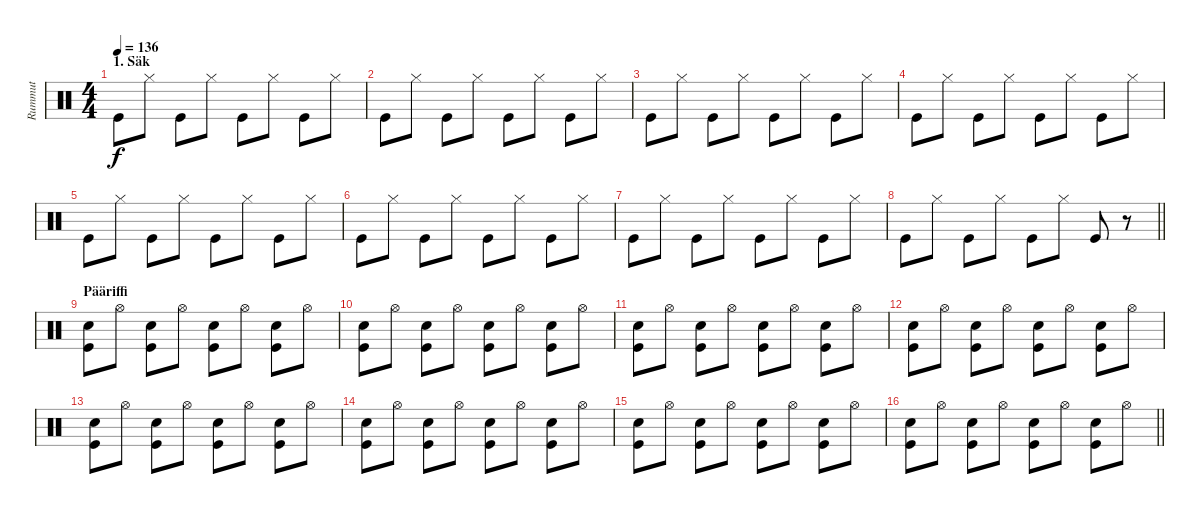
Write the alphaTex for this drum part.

\track ("Rummut" "Rummut") {instrument percussion}
\staff {score}
\articulation defaults
\ts (4 4)
\section ("" "1. Säk")
\tempo 136
\clef neutral
\ks c "Kick (hit)".8{dy f} "Hi-Hat (closed)".8 "Kick (hit)".8 "Hi-Hat (closed)".8 "Kick (hit)".8 "Hi-Hat (closed)".8 "Kick (hit)".8 "Hi-Hat (closed)".8
|
"Kick (hit)".8 "Hi-Hat (closed)".8 "Kick (hit)".8 "Hi-Hat (closed)".8 "Kick (hit)".8 "Hi-Hat (closed)".8 "Kick (hit)".8 "Hi-Hat (closed)".8 |
"Kick (hit)".8 "Hi-Hat (closed)".8 "Kick (hit)".8 "Hi-Hat (closed)".8 "Kick (hit)".8 "Hi-Hat (closed)".8 "Kick (hit)".8 "Hi-Hat (closed)".8 |
"Kick (hit)".8 "Hi-Hat (closed)".8 "Kick (hit)".8 "Hi-Hat (closed)".8 "Kick (hit)".8 "Hi-Hat (closed)".8 "Kick (hit)".8 "Hi-Hat (closed)".8 |
"Kick (hit)".8 "Hi-Hat (closed)".8 "Kick (hit)".8 "Hi-Hat (closed)".8 "Kick (hit)".8 "Hi-Hat (closed)".8 "Kick (hit)".8 "Hi-Hat (closed)".8 |
"Kick (hit)".8 "Hi-Hat (closed)".8 "Kick (hit)".8 "Hi-Hat (closed)".8 "Kick (hit)".8 "Hi-Hat (closed)".8 "Kick (hit)".8 "Hi-Hat (closed)".8 |
"Kick (hit)".8 "Hi-Hat (closed)".8 "Kick (hit)".8 "Hi-Hat (closed)".8 "Kick (hit)".8 "Hi-Hat (closed)".8 "Kick (hit)".8 "Hi-Hat (closed)".8 |
\barLineRight lightlight "Kick (hit)".8 "Hi-Hat (closed)".8 "Kick (hit)".8 "Hi-Hat (closed)".8 "Kick (hit)".8 "Hi-Hat (closed)".8 "Kick (hit)".8
r.8 |
\section ("" "Pääriffi")
("Electric Snare (hit)" "Kick (hit)").8 "Hi-Hat (open)".8 ("Electric Snare (hit)" "Kick (hit)").8 "Hi-Hat (open)".8 ("Electric Snare (hit)" "Kick (hit)").8 "Hi-Hat (open)".8 ("Electric Snare (hit)" "Kick (hit)").8 "Hi-Hat (open)".8 |
("Electric Snare (hit)" "Kick (hit)").8 "Hi-Hat (open)".8 ("Electric Snare (hit)" "Kick (hit)").8 "Hi-Hat (open)".8 ("Electric Snare (hit)" "Kick (hit)").8 "Hi-Hat (open)".8 ("Electric Snare (hit)" "Kick (hit)").8 "Hi-Hat (open)".8 |
("Electric Snare (hit)" "Kick (hit)").8 "Hi-Hat (open)".8 ("Electric Snare (hit)" "Kick (hit)").8 "Hi-Hat (open)".8 ("Electric Snare (hit)" "Kick (hit)").8 "Hi-Hat (open)".8 ("Electric Snare (hit)" "Kick (hit)").8 "Hi-Hat (open)".8 |
("Electric Snare (hit)" "Kick (hit)").8 "Hi-Hat (open)".8 ("Electric Snare (hit)" "Kick (hit)").8 "Hi-Hat (open)".8 ("Electric Snare (hit)" "Kick (hit)").8 "Hi-Hat (open)".8 ("Electric Snare (hit)" "Kick (hit)").8 "Hi-Hat (open)".8 |
("Electric Snare (hit)" "Kick (hit)").8 "Hi-Hat (open)".8 ("Electric Snare (hit)" "Kick (hit)").8 "Hi-Hat (open)".8 ("Electric Snare (hit)" "Kick (hit)").8 "Hi-Hat (open)".8 ("Electric Snare (hit)" "Kick (hit)").8 "Hi-Hat (open)".8 |
("Electric Snare (hit)" "Kick (hit)").8 "Hi-Hat (open)".8 ("Electric Snare (hit)" "Kick (hit)").8 "Hi-Hat (open)".8 ("Electric Snare (hit)" "Kick (hit)").8 "Hi-Hat (open)".8 ("Electric Snare (hit)" "Kick (hit)").8 "Hi-Hat (open)".8 |
("Electric Snare (hit)" "Kick (hit)").8 "Hi-Hat (open)".8 ("Electric Snare (hit)" "Kick (hit)").8 "Hi-Hat (open)".8 ("Electric Snare (hit)" "Kick (hit)").8 "Hi-Hat (open)".8 ("Electric Snare (hit)" "Kick (hit)").8 "Hi-Hat (open)".8 |
\barLineRight lightlight
("Electric Snare (hit)" "Kick (hit)").8 "Hi-Hat (open)".8 ("Electric Snare (hit)" "Kick (hit)").8 "Hi-Hat (open)".8 ("Electric Snare (hit)" "Kick (hit)").8 "Hi-Hat (open)".8 ("Electric Snare (hit)" "Kick (hit)").8 "Hi-Hat (open)".8
